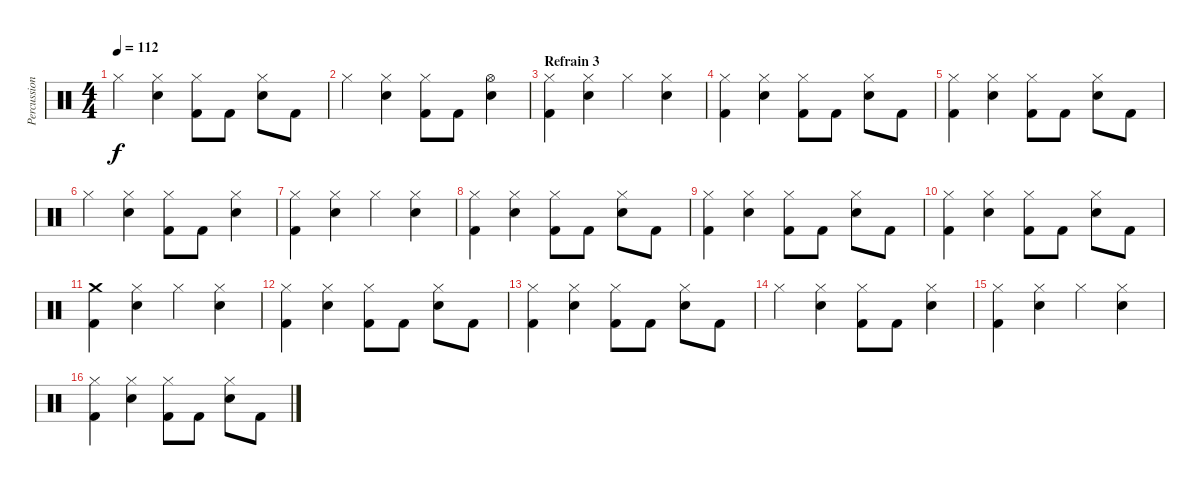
\track ("Percussions" "Percussion") {instrument percussion}
\staff {score}
\articulation defaults
\ts (4 4)
\tempo 112
\clef neutral
\ks c "Hi-Hat (closed)".4{dy f}
("Hi-Hat (closed)" "Snare (hit) 2").4 ("Hi-Hat (closed)" "Kick (hit) 2").8 "Kick (hit) 2".8 ("Hi-Hat (closed)" "Snare (hit) 2").8 "Kick (hit) 2".8 |
"Hi-Hat (closed)".4 ("Hi-Hat (closed)" "Snare (hit) 2").4 ("Hi-Hat (closed)" "Kick (hit) 2").8 "Kick (hit) 2".8 ("Hi-Hat (open)" "Snare (hit) 2").4 |
\section ("" "Refrain 3")
("Hi-Hat (closed)" "Kick (hit) 2").4 ("Hi-Hat (closed)" "Snare (hit) 2").4 "Hi-Hat (closed)".4 ("Hi-Hat (closed)" "Snare (hit) 2").4 |
("Hi-Hat (closed)" "Kick (hit) 2").4 ("Hi-Hat (closed)" "Snare (hit) 2").4 ("Hi-Hat (closed)" "Kick (hit) 2").8 "Kick (hit) 2".8 ("Hi-Hat (closed)" "Snare (hit) 2").8 "Kick (hit) 2".8 |
("Hi-Hat (closed)" "Kick (hit) 2").4 ("Hi-Hat (closed)" "Snare (hit) 2").4 ("Hi-Hat (closed)" "Kick (hit) 2").8 "Kick (hit) 2".8 ("Hi-Hat (closed)" "Snare (hit) 2").8 "Kick (hit) 2".8 |
"Hi-Hat (closed)".4 ("Hi-Hat (closed)" "Snare (hit) 2").4 ("Hi-Hat (closed)" "Kick (hit) 2").8 "Kick (hit) 2".8 ("Hi-Hat (closed)" "Snare (hit) 2").4 |
("Hi-Hat (closed)" "Kick (hit) 2").4 ("Hi-Hat (closed)" "Snare (hit) 2").4 "Hi-Hat (closed)".4 ("Hi-Hat (closed)" "Snare (hit) 2").4 |
("Hi-Hat (closed)" "Kick (hit) 2").4 ("Hi-Hat (closed)" "Snare (hit) 2").4 ("Hi-Hat (closed)" "Kick (hit) 2").8 "Kick (hit) 2".8 ("Hi-Hat (closed)" "Snare (hit) 2").8 "Kick (hit) 2".8 |
("Hi-Hat (closed)" "Kick (hit) 2").4 ("Hi-Hat (closed)" "Snare (hit) 2").4 ("Hi-Hat (closed)" "Kick (hit) 2").8 "Kick (hit) 2".8 ("Hi-Hat (closed)" "Snare (hit) 2").8 "Kick (hit) 2".8 |
("Hi-Hat (closed)" "Kick (hit) 2").4 ("Hi-Hat (closed)" "Snare (hit) 2").4 ("Hi-Hat (closed)" "Kick (hit) 2").8 "Kick (hit) 2".8 ("Hi-Hat (closed)" "Snare (hit) 2").8 "Kick (hit) 2".8 |
("Crash medium (hit)" "Kick (hit) 2").4 ("Hi-Hat (closed)" "Snare (hit) 2").4 "Hi-Hat (closed)".4 ("Hi-Hat (closed)" "Snare (hit) 2").4 |
("Hi-Hat (closed)" "Kick (hit) 2").4 ("Hi-Hat (closed)" "Snare (hit) 2").4 ("Hi-Hat (closed)" "Kick (hit) 2").8 "Kick (hit) 2".8 ("Hi-Hat (closed)" "Snare (hit) 2").8 "Kick (hit) 2".8 |
("Hi-Hat (closed)" "Kick (hit) 2").4 ("Hi-Hat (closed)" "Snare (hit) 2").4 ("Hi-Hat (closed)" "Kick (hit) 2").8 "Kick (hit) 2".8 ("Hi-Hat (closed)" "Snare (hit) 2").8 "Kick (hit) 2".8 |
"Hi-Hat (closed)".4 ("Hi-Hat (closed)" "Snare (hit) 2").4 ("Hi-Hat (closed)" "Kick (hit) 2").8 "Kick (hit) 2".8 ("Hi-Hat (closed)" "Snare (hit) 2").4 |
("Hi-Hat (closed)" "Kick (hit) 2").4 ("Hi-Hat (closed)" "Snare (hit) 2").4 "Hi-Hat (closed)".4 ("Hi-Hat (closed)" "Snare (hit) 2").4 |
("Hi-Hat (closed)" "Kick (hit) 2").4 ("Hi-Hat (closed)" "Snare (hit) 2").4 ("Hi-Hat (closed)" "Kick (hit) 2").8 "Kick (hit) 2".8 ("Hi-Hat (closed)" "Snare (hit) 2").8 "Kick (hit) 2".8
